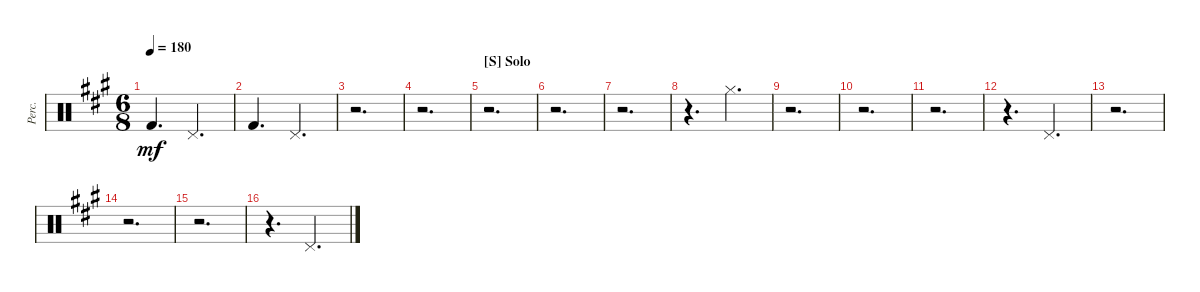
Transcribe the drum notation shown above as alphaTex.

\defaultSystemsLayout 4
\bracketExtendMode groupsimilarinstruments
\otherSystemsTrackNameOrientation horizontal
\track ("Percussions" "Perc.") {instrument percussion}
\staff {score}
\articulation defaults
\ts (6 8)
\tempo 180
\clef neutral
\ks f#minor "Kick (hit) 2"{acc forcenatural}.4{d dy mf beam Up} "Pedal Hi-Hat (hit)"{acc forcenatural}.4{d beam Up}
|
"Kick (hit) 2"{acc forcenatural}.4{d beam Up} "Pedal Hi-Hat (hit)"{acc forcenatural}.4{d beam Up} |
r.2{d beam Down} |
r.2{d beam Down} |
\section ("S" "Solo")
r.2{d beam Down} |
r.2{d beam Down} |
r.2{d beam Down} |
r.4{d beam Down} "Hi-Hat (closed)"{acc forcenatural}.4{d beam Down} |
r.2{d beam Down} |
r.2{d beam Down} |
r.2{d beam Down} |
r.4{d beam Down} "Pedal Hi-Hat (hit)"{acc forcenatural}.4{d beam Up} |
r.2{d beam Down} |
r.2{d beam Down} |
r.2{d beam Down} |
r.4{d beam Down} "Pedal Hi-Hat (hit)"{acc forcenatural}.4{d beam Up}
